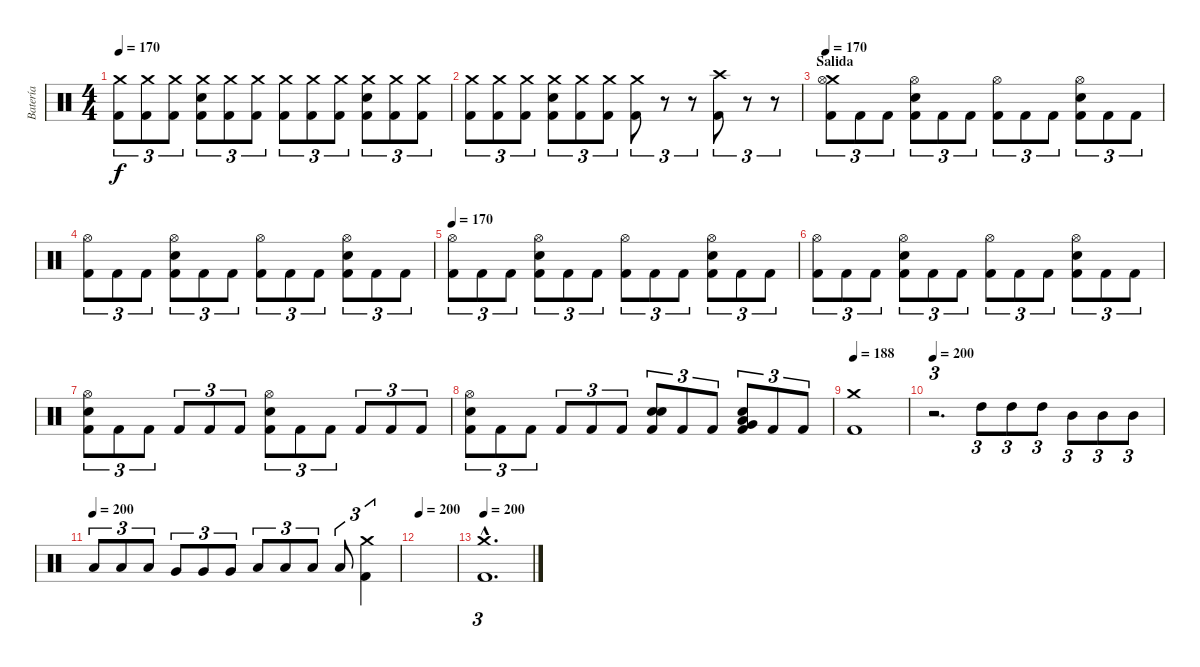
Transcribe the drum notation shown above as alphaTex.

\track ("Batería" "Batería") {instrument percussion}
\staff {score}
\articulation defaults
\ts (4 4)
\tempo 170
\clef neutral
\ks c
("Crash medium (hit)" "Kick (hit) 2").8{tu (3 2) dy f} ("Crash medium (hit)" "Kick (hit) 2").8{tu (3 2)} ("Crash medium (hit)" "Kick (hit) 2").8{tu (3 2)} ("Crash medium (hit)" "Snare (hit) 2" "Kick (hit) 2").8{tu (3 2)} ("Crash medium (hit)" "Kick (hit) 2").8{tu (3 2)} ("Crash medium (hit)" "Kick (hit) 2").8{tu (3 2)} ("Crash medium (hit)" "Kick (hit) 2").8{tu (3 2)} ("Crash medium (hit)" "Kick (hit) 2").8{tu (3 2)} ("Crash medium (hit)" "Kick (hit) 2").8{tu (3 2)} ("Crash medium (hit)" "Snare (hit) 2" "Kick (hit) 2").8{tu (3 2)} ("Crash medium (hit)" "Kick (hit) 2").8{tu (3 2)} ("Crash medium (hit)" "Kick (hit) 2").8{tu (3 2)} |
("Crash medium (hit)" "Kick (hit) 2").8{tu (3 2)} ("Crash medium (hit)" "Kick (hit) 2").8{tu (3 2)} ("Crash medium (hit)" "Kick (hit) 2").8{tu (3 2)} ("Crash medium (hit)" "Snare (hit) 2" "Kick (hit) 2").8{tu (3 2)} ("Crash medium (hit)" "Kick (hit) 2").8{tu (3 2)} ("Crash medium (hit)" "Kick (hit) 2").8{tu (3 2)} ("Crash medium (hit)" "Kick (hit) 2").8{tu (3 2)} r.8{tu (3 2)} r.8{tu (3 2)} ("Crash high (hit)" "Kick (hit) 2").8{tu (3 2)} r.8{tu (3 2)} r.8{tu (3 2)} |
\section ("" "Salida")
\tempo 170
("Crash medium (hit)" "Hi-Hat (open)" "Kick (hit) 2").8{tu (3 2)} "Kick (hit) 2".8{tu (3 2)} "Kick (hit) 2".8{tu (3 2)} ("Hi-Hat (open)" "Snare (hit) 2" "Kick (hit) 2").8{tu (3 2)} "Kick (hit) 2".8{tu (3 2)} "Kick (hit) 2".8{tu (3 2)} ("Hi-Hat (open)" "Kick (hit) 2").8{tu (3 2)} "Kick (hit) 2".8{tu (3 2)} "Kick (hit) 2".8{tu (3 2)} ("Hi-Hat (open)" "Snare (hit) 2" "Kick (hit) 2").8{tu (3 2)} "Kick (hit) 2".8{tu (3 2)} "Kick (hit) 2".8{tu (3 2)} |
("Hi-Hat (open)" "Kick (hit) 2").8{tu (3 2)} "Kick (hit) 2".8{tu (3 2)} "Kick (hit) 2".8{tu (3 2)} ("Hi-Hat (open)" "Snare (hit) 2" "Kick (hit) 2").8{tu (3 2)} "Kick (hit) 2".8{tu (3 2)} "Kick (hit) 2".8{tu (3 2)} ("Hi-Hat (open)" "Kick (hit) 2").8{tu (3 2)} "Kick (hit) 2".8{tu (3 2)} "Kick (hit) 2".8{tu (3 2)} ("Hi-Hat (open)" "Snare (hit) 2" "Kick (hit) 2").8{tu (3 2)} "Kick (hit) 2".8{tu (3 2)} "Kick (hit) 2".8{tu (3 2)} |
\tempo 170
("Hi-Hat (open)" "Kick (hit) 2").8{tu (3 2)} "Kick (hit) 2".8{tu (3 2)} "Kick (hit) 2".8{tu (3 2)} ("Hi-Hat (open)" "Snare (hit) 2" "Kick (hit) 2").8{tu (3 2)} "Kick (hit) 2".8{tu (3 2)} "Kick (hit) 2".8{tu (3 2)} ("Hi-Hat (open)" "Kick (hit) 2").8{tu (3 2)} "Kick (hit) 2".8{tu (3 2)} "Kick (hit) 2".8{tu (3 2)} ("Hi-Hat (open)" "Snare (hit) 2" "Kick (hit) 2").8{tu (3 2)} "Kick (hit) 2".8{tu (3 2)} "Kick (hit) 2".8{tu (3 2)} |
("Hi-Hat (open)" "Kick (hit) 2").8{tu (3 2)} "Kick (hit) 2".8{tu (3 2)} "Kick (hit) 2".8{tu (3 2)} ("Hi-Hat (open)" "Snare (hit) 2" "Kick (hit) 2").8{tu (3 2)} "Kick (hit) 2".8{tu (3 2)} "Kick (hit) 2".8{tu (3 2)} ("Hi-Hat (open)" "Kick (hit) 2").8{tu (3 2)} "Kick (hit) 2".8{tu (3 2)} "Kick (hit) 2".8{tu (3 2)} ("Hi-Hat (open)" "Snare (hit) 2" "Kick (hit) 2").8{tu (3 2)} "Kick (hit) 2".8{tu (3 2)} "Kick (hit) 2".8{tu (3 2)} |
("Hi-Hat (open)" "Snare (hit) 2" "Kick (hit) 2").8{tu (3 2)} "Kick (hit) 2".8{tu (3 2)} "Kick (hit) 2".8{tu (3 2)} "Kick (hit) 2".8{tu (3 2)} "Kick (hit) 2".8{tu (3 2)} "Kick (hit) 2".8{tu (3 2)} ("Hi-Hat (open)" "Snare (hit) 2" "Kick (hit) 2").8{tu (3 2)} "Kick (hit) 2".8{tu (3 2)} "Kick (hit) 2".8{tu (3 2)} "Kick (hit) 2".8{tu (3 2)} "Kick (hit) 2".8{tu (3 2)} "Kick (hit) 2".8{tu (3 2)} |
("Hi-Hat (open)" "Snare (hit) 2" "Kick (hit) 2").8{tu (3 2)} "Kick (hit) 2".8{tu (3 2)} "Kick (hit) 2".8{tu (3 2)} "Kick (hit) 2".8{tu (3 2)} "Kick (hit) 2".8{tu (3 2)} "Kick (hit) 2".8{tu (3 2)} ("Snare (hit) 2" "Snare (hit) 2" "Kick (hit) 2").8{tu (3 2)} "Kick (hit) 2".8{tu (3 2)} "Kick (hit) 2".8{tu (3 2)} ("Low Floor Tom (hit)" "Very Low Tom (hit)" "Snare (hit) 2" "Kick (hit) 2").8{tu (3 2)} "Kick (hit) 2".8{tu (3 2)} "Kick (hit) 2".8{tu (3 2)} |
\tempo 188
("Crash medium (hit)" "Kick (hit) 2").1 |
\tempo 200
r.2{d tu (3 2)} "High Tom (hit)".8{tu (3 2)} "High Tom (hit)".8{tu (3 2)} "High Tom (hit)".8{tu (3 2)} "Mid Tom (hit)".8{tu (3 2)} "Mid Tom (hit)".8{tu (3 2)} "Mid Tom (hit)".8{tu (3 2)} |
\tempo (200)
"Low Tom (hit)".8{tu (3 2)} "Low Tom (hit)".8{tu (3 2)} "Low Tom (hit)".8{tu (3 2)} "Very Low Tom (hit)".8{tu (3 2)} "Very Low Tom (hit)".8{tu (3 2)} "Very Low Tom (hit)".8{tu (3 2)} "Low Floor Tom (hit)".8{tu (3 2)} "Low Floor Tom (hit)".8{tu (3 2)} "Low Floor Tom (hit)".8{tu (3 2)} "Low Floor Tom (hit)".8{tu (3 2)} ("Crash medium (hit)" "Kick (hit) 2").4{tu (3 2)} |
\tempo 200
|
\tempo 200
("Crash medium (hit)"{hac} "Kick (hit) 2"{hac}).1{d tu (3 2)}
